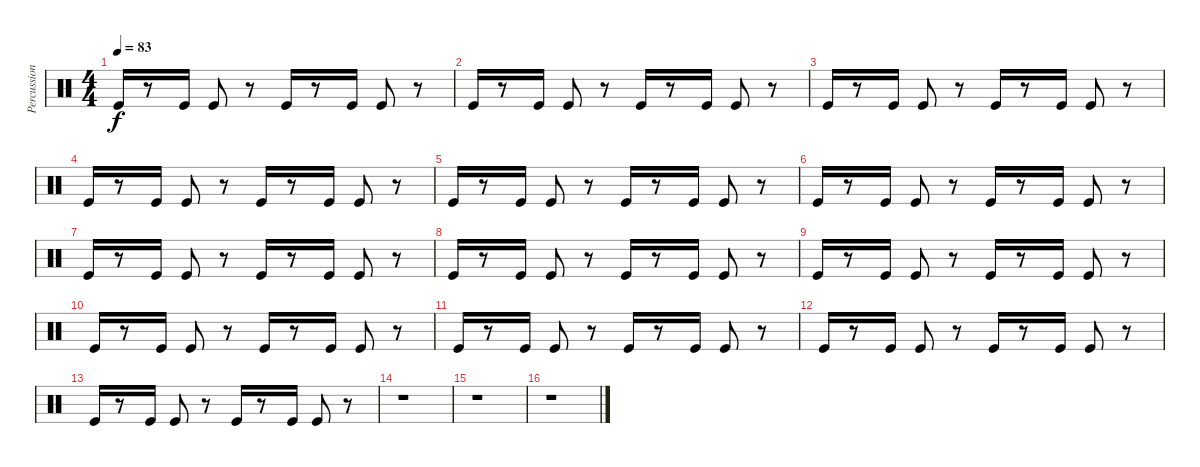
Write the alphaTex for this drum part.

\track ("Percussion" "Percussion") {instrument percussion}
\staff {score}
\articulation defaults
\ts (4 4)
\tempo 83
\clef neutral
\ks c "Kick (hit)".16{dy f}
r.8 "Kick (hit)".16 "Kick (hit)".8 r.8 "Kick (hit)".16 r.8 "Kick (hit)".16 "Kick (hit)".8 r.8 |
"Kick (hit)".16 r.8 "Kick (hit)".16 "Kick (hit)".8 r.8 "Kick (hit)".16 r.8 "Kick (hit)".16 "Kick (hit)".8 r.8 |
"Kick (hit)".16 r.8 "Kick (hit)".16 "Kick (hit)".8 r.8 "Kick (hit)".16 r.8 "Kick (hit)".16 "Kick (hit)".8 r.8 |
"Kick (hit)".16 r.8 "Kick (hit)".16 "Kick (hit)".8 r.8 "Kick (hit)".16 r.8 "Kick (hit)".16 "Kick (hit)".8 r.8 |
"Kick (hit)".16 r.8 "Kick (hit)".16 "Kick (hit)".8 r.8 "Kick (hit)".16 r.8 "Kick (hit)".16 "Kick (hit)".8 r.8 |
"Kick (hit)".16 r.8 "Kick (hit)".16 "Kick (hit)".8 r.8 "Kick (hit)".16 r.8 "Kick (hit)".16 "Kick (hit)".8 r.8 |
"Kick (hit)".16 r.8 "Kick (hit)".16 "Kick (hit)".8 r.8 "Kick (hit)".16 r.8 "Kick (hit)".16 "Kick (hit)".8 r.8 |
"Kick (hit)".16 r.8 "Kick (hit)".16 "Kick (hit)".8 r.8 "Kick (hit)".16 r.8 "Kick (hit)".16 "Kick (hit)".8 r.8 |
"Kick (hit)".16 r.8 "Kick (hit)".16 "Kick (hit)".8 r.8 "Kick (hit)".16 r.8 "Kick (hit)".16 "Kick (hit)".8 r.8 |
"Kick (hit)".16 r.8 "Kick (hit)".16 "Kick (hit)".8 r.8 "Kick (hit)".16 r.8 "Kick (hit)".16 "Kick (hit)".8 r.8 |
"Kick (hit)".16 r.8 "Kick (hit)".16 "Kick (hit)".8 r.8 "Kick (hit)".16 r.8 "Kick (hit)".16 "Kick (hit)".8 r.8 |
"Kick (hit)".16 r.8 "Kick (hit)".16 "Kick (hit)".8 r.8 "Kick (hit)".16 r.8 "Kick (hit)".16 "Kick (hit)".8 r.8 |
"Kick (hit)".16 r.8 "Kick (hit)".16 "Kick (hit)".8 r.8 "Kick (hit)".16 r.8 "Kick (hit)".16 "Kick (hit)".8 r.8 |
r.1 |
r.1 |
r.1
